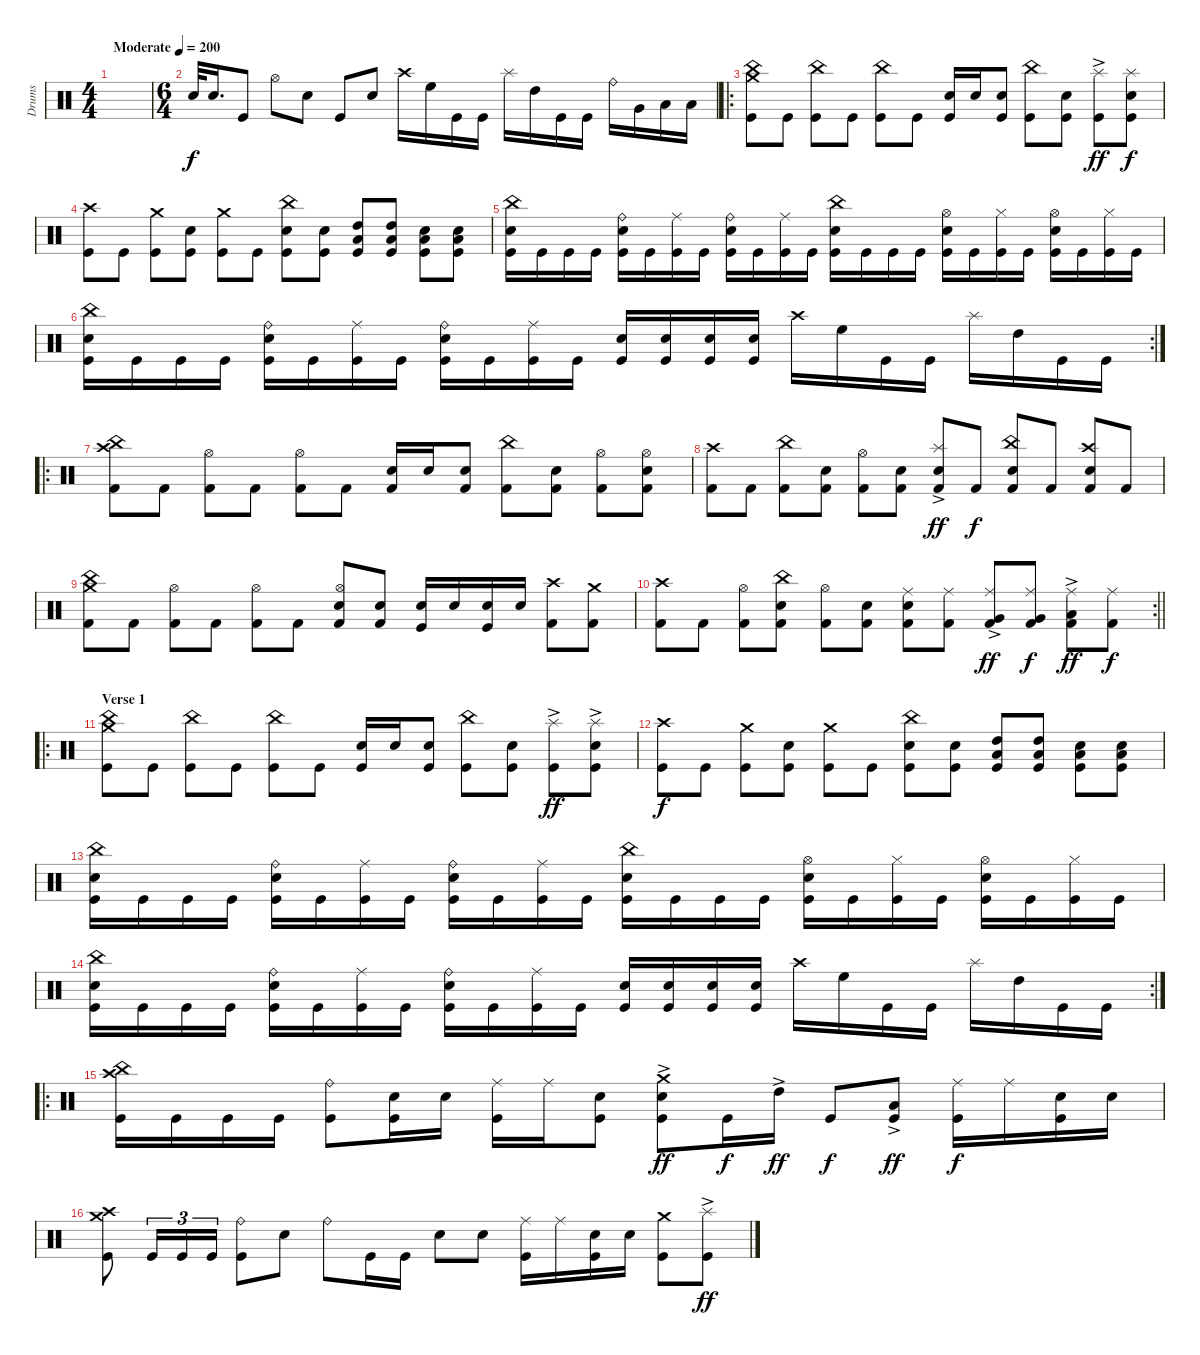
\track ("Drums" "Drums") {mute instrument percussion}
\staff {score}
\articulation defaults
\ts (4 4)
\tempo (200 "Moderate")
\clef neutral
\ks c
|
\ts (6 4)
"Electric Snare (hit)".32 "Electric Snare (hit)".16{d} "Kick (hit)".8 "Hi-Hat (open)".8 "Electric Snare (hit)".8 "Kick (hit)".8 "Electric Snare (hit)".8 "Crash high (hit)".16 "High Floor Tom (hit)".16 "Kick (hit)".16 "Kick (hit)".16 "Splash (hit)".16 "High Tom (hit)".16 "Kick (hit)".16 "Kick (hit)".16 "Ride (bell)".16 "Very Low Tom (hit)".16 "Low Floor Tom (hit)".16 "Low Floor Tom (hit)".16 |
\ro
("Crash medium (hit)" "China (hit)" "Kick (hit)").8 "Kick (hit)".8 ("China (hit)" "Kick (hit)").8 "Kick (hit)".8 ("China (hit)" "Kick (hit)").8 "Kick (hit)".8 ("Electric Snare (hit)" "Kick (hit)").16 "Electric Snare (hit)".16 ("Electric Snare (hit)" "Kick (hit)").8 ("China (hit)" "Kick (hit)").8 ("Electric Snare (hit)" "Kick (hit)").8 ("Splash (hit)"{ac} "Kick (hit)").8{dy ff} ("Splash (hit)" "Electric Snare (hit)" "Kick (hit)").8{dy f} |
("Crash high (hit)" "Kick (hit)").8 "Kick (hit)".8 ("Crash medium (hit)" "Kick (hit)").8 ("Electric Snare (hit)" "Kick (hit)").8 ("Crash medium (hit)" "Kick (hit)").8 "Kick (hit)".8 ("China (hit)" "Electric Snare (hit)" "Kick (hit)").8 ("Electric Snare (hit)" "Kick (hit)").8 ("High Tom (hit)" "Low Tom (hit)" "Kick (hit)").8 ("High Tom (hit)" "Low Tom (hit)" "Kick (hit)").8 ("Low Floor Tom (hit)" "Electric Snare (hit)" "Kick (hit)").8 ("Low Floor Tom (hit)" "Electric Snare (hit)" "Kick (hit)").8 |
("China (hit)" "Electric Snare (hit)" "Kick (hit)").16 "Kick (hit)".16 "Kick (hit)".16 "Kick (hit)".16 ("Ride (bell)" "Electric Snare (hit)" "Kick (hit)").16 "Kick (hit)".16 ("Ride (middle)" "Kick (hit)").16 "Kick (hit)".16 ("Ride (bell)" "Electric Snare (hit)" "Kick (hit)").16 "Kick (hit)".16 ("Ride (middle)" "Kick (hit)").16 "Kick (hit)".16 ("China (hit)" "Electric Snare (hit)" "Kick (hit)").16 "Kick (hit)".16 "Kick (hit)".16 "Kick (hit)".16 ("Hi-Hat (open)" "Electric Snare (hit)" "Kick (hit)").16 "Kick (hit)".16 ("Hi-Hat (closed)" "Kick (hit)").16 "Kick (hit)".16 ("Hi-Hat (open)" "Electric Snare (hit)" "Kick (hit)").16 "Kick (hit)".16 ("Hi-Hat (closed)" "Kick (hit)").16 "Kick (hit)".16 |
\rc 2
("China (hit)" "Electric Snare (hit)" "Kick (hit)").16 "Kick (hit)".16 "Kick (hit)".16 "Kick (hit)".16 ("Ride (bell)" "Electric Snare (hit)" "Kick (hit)").16 "Kick (hit)".16 ("Ride (middle)" "Kick (hit)").16 "Kick (hit)".16 ("Ride (bell)" "Electric Snare (hit)" "Kick (hit)").16 "Kick (hit)".16 ("Ride (middle)" "Kick (hit)").16 "Kick (hit)".16 ("Electric Snare (hit)" "Kick (hit)").16 ("Electric Snare (hit)" "Kick (hit)").16 ("Electric Snare (hit)" "Kick (hit)").16 ("Electric Snare (hit)" "Kick (hit)").16 "Crash high (hit)".16 "High Floor Tom (hit)".16 "Kick (hit)".16 "Kick (hit)".16 "Splash (hit)".16 "High Tom (hit)".16 "Kick (hit)".16 "Kick (hit)".16 |
\ro
("Crash high (hit)" "China (hit)" "Kick (hit) 2").8 "Kick (hit) 2".8 ("Hi-Hat (open)" "Kick (hit) 2").8 "Kick (hit) 2".8 ("Hi-Hat (open)" "Kick (hit) 2").8 "Kick (hit) 2".8 ("Electric Snare (hit)" "Kick (hit) 2").16 "Electric Snare (hit)".16 ("Electric Snare (hit)" "Kick (hit) 2").8 ("China (hit)" "Kick (hit) 2").8 ("Electric Snare (hit)" "Kick (hit) 2").8 ("Hi-Hat (open)" "Kick (hit) 2").8 ("Hi-Hat (open)" "Electric Snare (hit)" "Kick (hit) 2").8 |
("Crash high (hit)" "Kick (hit) 2").8 "Kick (hit) 2".8 ("China (hit)" "Kick (hit) 2").8 ("Electric Snare (hit)" "Kick (hit) 2").8 ("Hi-Hat (open)" "Kick (hit) 2").8 ("Electric Snare (hit)" "Kick (hit) 2").8 ("Splash (hit)"{ac} "Electric Snare (hit)" "Kick (hit) 2").8{dy ff} "Kick (hit) 2".8{dy f} ("China (hit)" "Electric Snare (hit)" "Kick (hit) 2").8 "Kick (hit) 2".8 ("Crash high (hit)" "Electric Snare (hit)" "Kick (hit) 2").8 "Kick (hit) 2".8 |
("Crash medium (hit)" "China (hit)" "Kick (hit) 2").8 "Kick (hit) 2".8 ("Hi-Hat (open)" "Kick (hit) 2").8 "Kick (hit) 2".8 ("Hi-Hat (open)" "Kick (hit) 2").8 "Kick (hit) 2".8 ("Hi-Hat (open)" "Electric Snare (hit)" "Kick (hit) 2").8 ("Electric Snare (hit)" "Kick (hit) 2").8 ("Electric Snare (hit)" "Kick (hit)").16 "Electric Snare (hit)".16 ("Electric Snare (hit)" "Kick (hit)").16 "Electric Snare (hit)".16 ("Crash high (hit)" "Kick (hit) 2").8 ("Crash medium (hit)" "Kick (hit) 2").8 |
\rc 2
\barLineRight lightlight
("Crash high (hit)" "Kick (hit) 2").8 "Kick (hit) 2".8 ("Hi-Hat (open)" "Kick (hit) 2").8 ("China (hit)" "Electric Snare (hit)" "Kick (hit) 2").8 ("Hi-Hat (open)" "Kick (hit) 2").8 ("Electric Snare (hit)" "Kick (hit) 2").8 ("Ride (middle)" "Electric Snare (hit)" "Kick (hit) 2").8 ("Ride (middle)" "Kick (hit) 2").8 ("Ride (middle)" "Very Low Tom (hit)"{ac} "Kick (hit) 2").8{dy ff} ("Ride (middle)" "Very Low Tom (hit)" "Kick (hit) 2").8{dy f} ("Ride (middle)" "Low Floor Tom (hit)"{ac} "Kick (hit) 2").8{dy ff} ("Ride (middle)" "Kick (hit) 2").8{dy f} |
\ro
\section ("" "Verse 1")
("Crash medium (hit)" "China (hit)" "Kick (hit)").8 "Kick (hit)".8 ("China (hit)" "Kick (hit)").8 "Kick (hit)".8 ("China (hit)" "Kick (hit)").8 "Kick (hit)".8 ("Electric Snare (hit)" "Kick (hit)").16 "Electric Snare (hit)".16 ("Electric Snare (hit)" "Kick (hit)").8 ("China (hit)" "Kick (hit)").8 ("Electric Snare (hit)" "Kick (hit)").8 ("Splash (hit)"{ac} "Kick (hit)").8{dy ff} ("Splash (hit)"{ac} "Electric Snare (hit)" "Kick (hit)").8 |
("Crash high (hit)" "Kick (hit)").8{dy f} "Kick (hit)".8 ("Crash medium (hit)" "Kick (hit)").8 ("Electric Snare (hit)" "Kick (hit)").8 ("Crash medium (hit)" "Kick (hit)").8 "Kick (hit)".8 ("China (hit)" "Electric Snare (hit)" "Kick (hit)").8 ("Electric Snare (hit)" "Kick (hit)").8 ("High Tom (hit)" "Low Tom (hit)" "Kick (hit)").8 ("High Tom (hit)" "Low Tom (hit)" "Kick (hit)").8 ("Low Floor Tom (hit)" "Electric Snare (hit)" "Kick (hit)").8 ("Low Floor Tom (hit)" "Electric Snare (hit)" "Kick (hit)").8 |
("China (hit)" "Electric Snare (hit)" "Kick (hit)").16 "Kick (hit)".16 "Kick (hit)".16 "Kick (hit)".16 ("Ride (bell)" "Electric Snare (hit)" "Kick (hit)").16 "Kick (hit)".16 ("Ride (middle)" "Kick (hit)").16 "Kick (hit)".16 ("Ride (bell)" "Electric Snare (hit)" "Kick (hit)").16 "Kick (hit)".16 ("Ride (middle)" "Kick (hit)").16 "Kick (hit)".16 ("China (hit)" "Electric Snare (hit)" "Kick (hit)").16 "Kick (hit)".16 "Kick (hit)".16 "Kick (hit)".16 ("Hi-Hat (open)" "Electric Snare (hit)" "Kick (hit)").16 "Kick (hit)".16 ("Hi-Hat (closed)" "Kick (hit)").16 "Kick (hit)".16 ("Hi-Hat (open)" "Electric Snare (hit)" "Kick (hit)").16 "Kick (hit)".16 ("Hi-Hat (closed)" "Kick (hit)").16 "Kick (hit)".16 |
\rc 2
("China (hit)" "Electric Snare (hit)" "Kick (hit)").16 "Kick (hit)".16 "Kick (hit)".16 "Kick (hit)".16 ("Ride (bell)" "Electric Snare (hit)" "Kick (hit)").16 "Kick (hit)".16 ("Ride (middle)" "Kick (hit)").16 "Kick (hit)".16 ("Ride (bell)" "Electric Snare (hit)" "Kick (hit)").16 "Kick (hit)".16 ("Ride (middle)" "Kick (hit)").16 "Kick (hit)".16 ("Electric Snare (hit)" "Kick (hit)").16 ("Electric Snare (hit)" "Kick (hit)").16 ("Electric Snare (hit)" "Kick (hit)").16 ("Electric Snare (hit)" "Kick (hit)").16 "Crash high (hit)".16 "High Floor Tom (hit)".16 "Kick (hit)".16 "Kick (hit)".16 "Splash (hit)".16 "High Tom (hit)".16 "Kick (hit)".16 "Kick (hit)".16 |
\ro
("China (hit)" "Crash high (hit)" "Kick (hit)").16 "Kick (hit)".16 "Kick (hit)".16 "Kick (hit)".16 ("Ride (bell)" "Kick (hit)").8 ("Electric Snare (hit)" "Kick (hit)").16 "Electric Snare (hit)".16 ("Ride (middle)" "Kick (hit)").16 "Ride (middle)".16 ("Electric Snare (hit)" "Kick (hit)").8 ("Crash medium (hit)" "Electric Snare (hit)"{ac} "Kick (hit)").8{dy ff} "Kick (hit)".16{dy f} "High Tom (hit)"{ac}.16{dy ff} "Kick (hit)".8{dy f} ("Low Tom (hit)"{ac} "Kick (hit)").8{dy ff} ("Ride (middle)" "Kick (hit)").16{dy f} "Ride (middle)".16 ("Electric Snare (hit)" "Kick (hit)").16 "Electric Snare (hit)".16 |
("Crash medium (hit)" "Crash high (hit)" "Kick (hit)").8 "Kick (hit)".16{tu (3 2)} "Kick (hit)".16{tu (3 2)} "Kick (hit)".16{tu (3 2)} ("Ride (bell)" "Kick (hit)").8 "Electric Snare (hit)".8 "Ride (bell)".8 "Kick (hit)".16 "Kick (hit)".16 "Electric Snare (hit)".8 "Electric Snare (hit)".8 ("Ride (middle)" "Kick (hit)").16 "Ride (middle)".16 ("Electric Snare (hit)" "Kick (hit)").16 "Electric Snare (hit)".16 ("Crash medium (hit)" "Kick (hit)").8 ("Splash (hit)"{ac} "Kick (hit)").8{dy ff}
